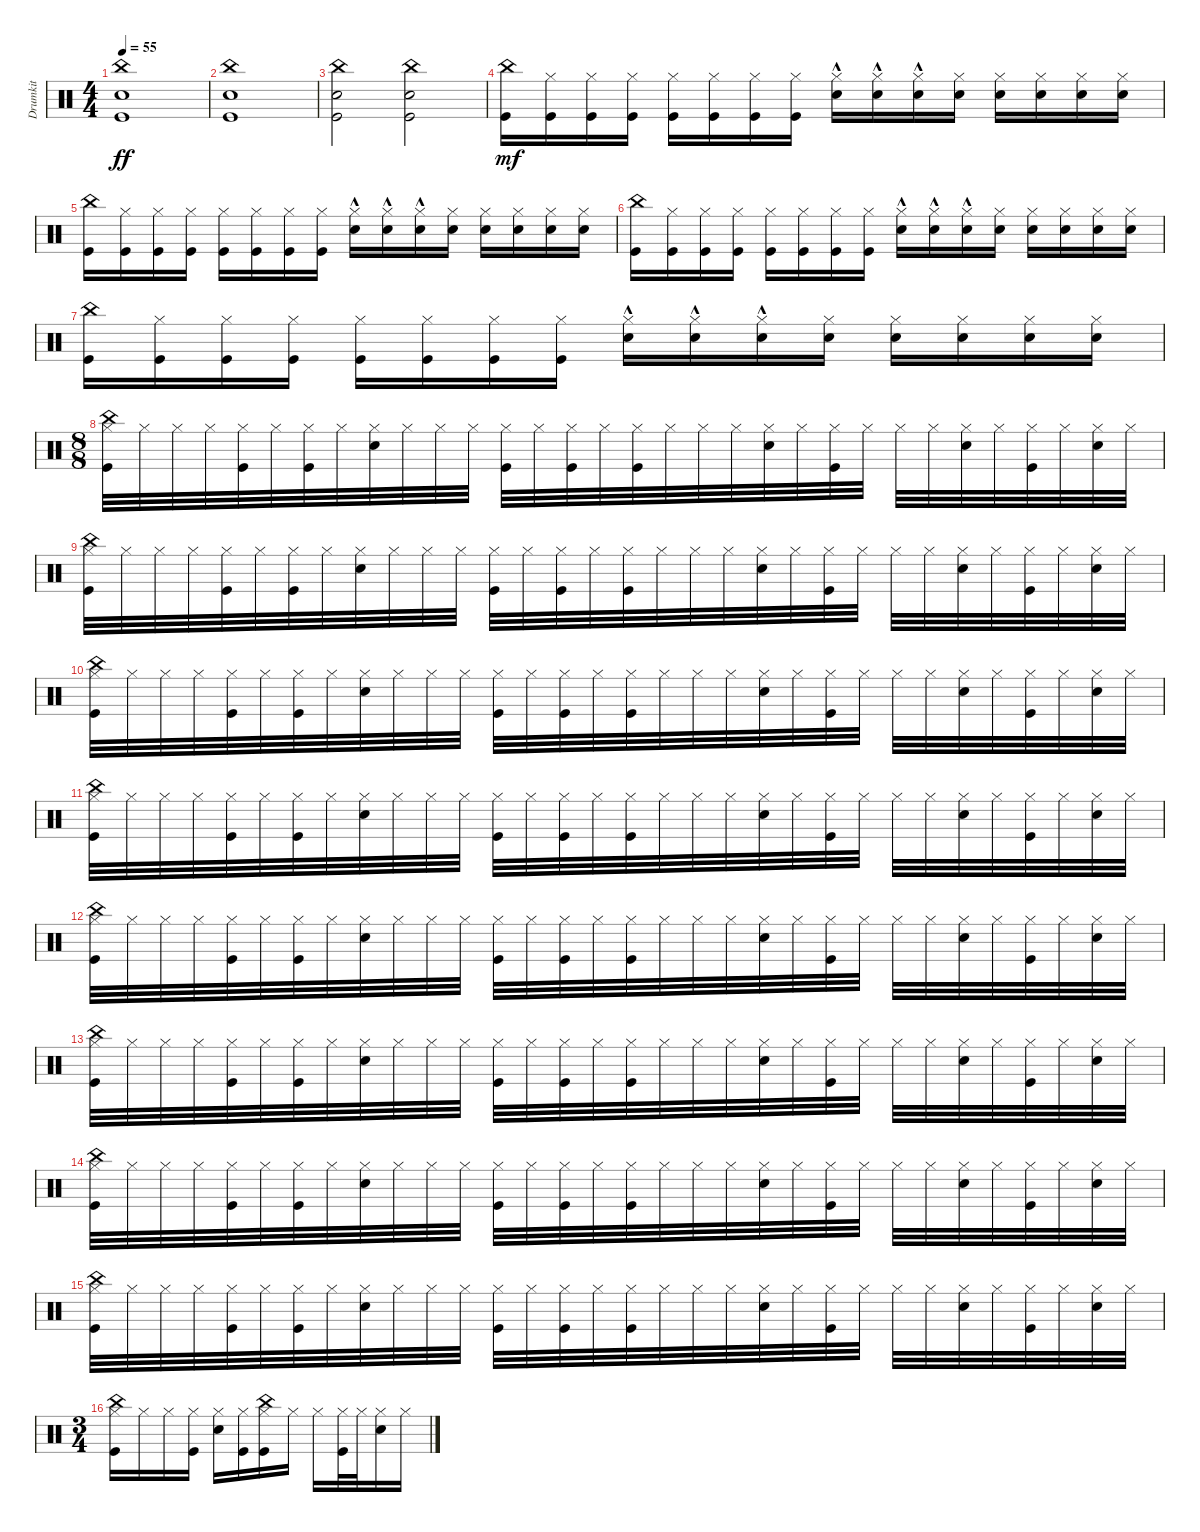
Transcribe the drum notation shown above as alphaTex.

\track ("Drumkit" "Drumkit") {instrument percussion}
\staff {score}
\articulation defaults
\ts (4 4)
\tempo 55
\clef neutral
\ks c
("China (hit)" "Kick (hit)" "Snare (hit) 2").1{dy ff} |
("China (hit)" "Kick (hit)" "Snare (hit) 2").1 |
("China (hit)" "Kick (hit)" "Snare (hit) 2").2 ("China (hit)" "Kick (hit)" "Snare (hit) 2").2 |
("Kick (hit)" "China (hit)").16{dy mf} ("Kick (hit)" "Hi-Hat (closed)").16 ("Kick (hit)" "Hi-Hat (closed)").16 ("Kick (hit)" "Hi-Hat (closed)").16 ("Kick (hit)" "Hi-Hat (closed)").16 ("Kick (hit)" "Hi-Hat (closed)").16 ("Kick (hit)" "Hi-Hat (closed)").16 ("Kick (hit)" "Hi-Hat (closed)").16 ("Snare (hit) 2"{hac} "Hi-Hat (closed)"{hac}).16 ("Snare (hit) 2"{hac} "Hi-Hat (closed)"{hac}).16 ("Snare (hit) 2"{hac} "Hi-Hat (closed)"{hac}).16 ("Snare (hit) 2" "Hi-Hat (closed)").16 ("Snare (hit) 2" "Hi-Hat (closed)").16 ("Snare (hit) 2" "Hi-Hat (closed)").16 ("Snare (hit) 2" "Hi-Hat (closed)").16 ("Snare (hit) 2" "Hi-Hat (closed)").16 |
("Kick (hit)" "China (hit)").16 ("Kick (hit)" "Hi-Hat (closed)").16 ("Kick (hit)" "Hi-Hat (closed)").16 ("Kick (hit)" "Hi-Hat (closed)").16 ("Kick (hit)" "Hi-Hat (closed)").16 ("Kick (hit)" "Hi-Hat (closed)").16 ("Kick (hit)" "Hi-Hat (closed)").16 ("Kick (hit)" "Hi-Hat (closed)").16 ("Snare (hit) 2"{hac} "Hi-Hat (closed)"{hac}).16 ("Snare (hit) 2"{hac} "Hi-Hat (closed)"{hac}).16 ("Snare (hit) 2"{hac} "Hi-Hat (closed)"{hac}).16 ("Snare (hit) 2" "Hi-Hat (closed)").16 ("Snare (hit) 2" "Hi-Hat (closed)").16 ("Snare (hit) 2" "Hi-Hat (closed)").16 ("Snare (hit) 2" "Hi-Hat (closed)").16 ("Snare (hit) 2" "Hi-Hat (closed)").16 |
("Kick (hit)" "China (hit)").16 ("Kick (hit)" "Hi-Hat (closed)").16 ("Kick (hit)" "Hi-Hat (closed)").16 ("Kick (hit)" "Hi-Hat (closed)").16 ("Kick (hit)" "Hi-Hat (closed)").16 ("Kick (hit)" "Hi-Hat (closed)").16 ("Kick (hit)" "Hi-Hat (closed)").16 ("Kick (hit)" "Hi-Hat (closed)").16 ("Snare (hit) 2"{hac} "Hi-Hat (closed)"{hac}).16 ("Snare (hit) 2"{hac} "Hi-Hat (closed)"{hac}).16 ("Snare (hit) 2"{hac} "Hi-Hat (closed)"{hac}).16 ("Snare (hit) 2" "Hi-Hat (closed)").16 ("Snare (hit) 2" "Hi-Hat (closed)").16 ("Snare (hit) 2" "Hi-Hat (closed)").16 ("Snare (hit) 2" "Hi-Hat (closed)").16 ("Snare (hit) 2" "Hi-Hat (closed)").16 |
("Kick (hit)" "China (hit)").16 ("Kick (hit)" "Hi-Hat (closed)").16 ("Kick (hit)" "Hi-Hat (closed)").16 ("Kick (hit)" "Hi-Hat (closed)").16 ("Kick (hit)" "Hi-Hat (closed)").16 ("Kick (hit)" "Hi-Hat (closed)").16 ("Kick (hit)" "Hi-Hat (closed)").16 ("Kick (hit)" "Hi-Hat (closed)").16 ("Snare (hit) 2"{hac} "Hi-Hat (closed)"{hac}).16 ("Snare (hit) 2"{hac} "Hi-Hat (closed)"{hac}).16 ("Snare (hit) 2"{hac} "Hi-Hat (closed)"{hac}).16 ("Snare (hit) 2" "Hi-Hat (closed)").16 ("Snare (hit) 2" "Hi-Hat (closed)").16 ("Snare (hit) 2" "Hi-Hat (closed)").16 ("Snare (hit) 2" "Hi-Hat (closed)").16 ("Snare (hit) 2" "Hi-Hat (closed)").16 |
\ts (8 8)
("Hi-Hat (closed)" "Kick (hit)" "China (hit)").32 "Hi-Hat (closed)".32 "Hi-Hat (closed)".32 "Hi-Hat (closed)".32 ("Hi-Hat (closed)" "Kick (hit)").32 "Hi-Hat (closed)".32 ("Hi-Hat (closed)" "Kick (hit)").32 "Hi-Hat (closed)".32 ("Hi-Hat (closed)" "Snare (hit) 2").32 "Hi-Hat (closed)".32 "Hi-Hat (closed)".32 "Hi-Hat (closed)".32 ("Hi-Hat (closed)" "Kick (hit)").32 "Hi-Hat (closed)".32 ("Hi-Hat (closed)" "Kick (hit)").32 "Hi-Hat (closed)".32 ("Hi-Hat (closed)" "Kick (hit)").32 "Hi-Hat (closed)".32 "Hi-Hat (closed)".32 "Hi-Hat (closed)".32 ("Hi-Hat (closed)" "Snare (hit) 2").32 "Hi-Hat (closed)".32 ("Hi-Hat (closed)" "Kick (hit)").32 "Hi-Hat (closed)".32 "Hi-Hat (closed)".32 "Hi-Hat (closed)".32 ("Hi-Hat (closed)" "Snare (hit) 2").32 "Hi-Hat (closed)".32 ("Hi-Hat (closed)" "Kick (hit)").32 "Hi-Hat (closed)".32 ("Hi-Hat (closed)" "Snare (hit) 2").32 "Hi-Hat (closed)".32 |
("Hi-Hat (closed)" "Kick (hit)" "China (hit)").32 "Hi-Hat (closed)".32 "Hi-Hat (closed)".32 "Hi-Hat (closed)".32 ("Hi-Hat (closed)" "Kick (hit)").32 "Hi-Hat (closed)".32 ("Hi-Hat (closed)" "Kick (hit)").32 "Hi-Hat (closed)".32 ("Hi-Hat (closed)" "Snare (hit) 2").32 "Hi-Hat (closed)".32 "Hi-Hat (closed)".32 "Hi-Hat (closed)".32 ("Hi-Hat (closed)" "Kick (hit)").32 "Hi-Hat (closed)".32 ("Hi-Hat (closed)" "Kick (hit)").32 "Hi-Hat (closed)".32 ("Hi-Hat (closed)" "Kick (hit)").32 "Hi-Hat (closed)".32 "Hi-Hat (closed)".32 "Hi-Hat (closed)".32 ("Hi-Hat (closed)" "Snare (hit) 2").32 "Hi-Hat (closed)".32 ("Hi-Hat (closed)" "Kick (hit)").32 "Hi-Hat (closed)".32 "Hi-Hat (closed)".32 "Hi-Hat (closed)".32 ("Hi-Hat (closed)" "Snare (hit) 2").32 "Hi-Hat (closed)".32 ("Hi-Hat (closed)" "Kick (hit)").32 "Hi-Hat (closed)".32 ("Hi-Hat (closed)" "Snare (hit) 2").32 "Hi-Hat (closed)".32 |
("Hi-Hat (closed)" "Kick (hit)" "China (hit)").32 "Hi-Hat (closed)".32 "Hi-Hat (closed)".32 "Hi-Hat (closed)".32 ("Hi-Hat (closed)" "Kick (hit)").32 "Hi-Hat (closed)".32 ("Hi-Hat (closed)" "Kick (hit)").32 "Hi-Hat (closed)".32 ("Hi-Hat (closed)" "Snare (hit) 2").32 "Hi-Hat (closed)".32 "Hi-Hat (closed)".32 "Hi-Hat (closed)".32 ("Hi-Hat (closed)" "Kick (hit)").32 "Hi-Hat (closed)".32 ("Hi-Hat (closed)" "Kick (hit)").32 "Hi-Hat (closed)".32 ("Hi-Hat (closed)" "Kick (hit)").32 "Hi-Hat (closed)".32 "Hi-Hat (closed)".32 "Hi-Hat (closed)".32 ("Hi-Hat (closed)" "Snare (hit) 2").32 "Hi-Hat (closed)".32 ("Hi-Hat (closed)" "Kick (hit)").32 "Hi-Hat (closed)".32 "Hi-Hat (closed)".32 "Hi-Hat (closed)".32 ("Hi-Hat (closed)" "Snare (hit) 2").32 "Hi-Hat (closed)".32 ("Hi-Hat (closed)" "Kick (hit)").32 "Hi-Hat (closed)".32 ("Hi-Hat (closed)" "Snare (hit) 2").32 "Hi-Hat (closed)".32 |
("Hi-Hat (closed)" "Kick (hit)" "China (hit)").32 "Hi-Hat (closed)".32 "Hi-Hat (closed)".32 "Hi-Hat (closed)".32 ("Hi-Hat (closed)" "Kick (hit)").32 "Hi-Hat (closed)".32 ("Hi-Hat (closed)" "Kick (hit)").32 "Hi-Hat (closed)".32 ("Hi-Hat (closed)" "Snare (hit) 2").32 "Hi-Hat (closed)".32 "Hi-Hat (closed)".32 "Hi-Hat (closed)".32 ("Hi-Hat (closed)" "Kick (hit)").32 "Hi-Hat (closed)".32 ("Hi-Hat (closed)" "Kick (hit)").32 "Hi-Hat (closed)".32 ("Hi-Hat (closed)" "Kick (hit)").32 "Hi-Hat (closed)".32 "Hi-Hat (closed)".32 "Hi-Hat (closed)".32 ("Hi-Hat (closed)" "Snare (hit) 2").32 "Hi-Hat (closed)".32 ("Hi-Hat (closed)" "Kick (hit)").32 "Hi-Hat (closed)".32 "Hi-Hat (closed)".32 "Hi-Hat (closed)".32 ("Hi-Hat (closed)" "Snare (hit) 2").32 "Hi-Hat (closed)".32 ("Hi-Hat (closed)" "Kick (hit)").32 "Hi-Hat (closed)".32 ("Hi-Hat (closed)" "Snare (hit) 2").32 "Hi-Hat (closed)".32 |
("Hi-Hat (closed)" "Kick (hit)" "China (hit)").32 "Hi-Hat (closed)".32 "Hi-Hat (closed)".32 "Hi-Hat (closed)".32 ("Hi-Hat (closed)" "Kick (hit)").32 "Hi-Hat (closed)".32 ("Hi-Hat (closed)" "Kick (hit)").32 "Hi-Hat (closed)".32 ("Hi-Hat (closed)" "Snare (hit) 2").32 "Hi-Hat (closed)".32 "Hi-Hat (closed)".32 "Hi-Hat (closed)".32 ("Hi-Hat (closed)" "Kick (hit)").32 "Hi-Hat (closed)".32 ("Hi-Hat (closed)" "Kick (hit)").32 "Hi-Hat (closed)".32 ("Hi-Hat (closed)" "Kick (hit)").32 "Hi-Hat (closed)".32 "Hi-Hat (closed)".32 "Hi-Hat (closed)".32 ("Hi-Hat (closed)" "Snare (hit) 2").32 "Hi-Hat (closed)".32 ("Hi-Hat (closed)" "Kick (hit)").32 "Hi-Hat (closed)".32 "Hi-Hat (closed)".32 "Hi-Hat (closed)".32 ("Hi-Hat (closed)" "Snare (hit) 2").32 "Hi-Hat (closed)".32 ("Hi-Hat (closed)" "Kick (hit)").32 "Hi-Hat (closed)".32 ("Hi-Hat (closed)" "Snare (hit) 2").32 "Hi-Hat (closed)".32 |
("Hi-Hat (closed)" "Kick (hit)" "China (hit)").32 "Hi-Hat (closed)".32 "Hi-Hat (closed)".32 "Hi-Hat (closed)".32 ("Hi-Hat (closed)" "Kick (hit)").32 "Hi-Hat (closed)".32 ("Hi-Hat (closed)" "Kick (hit)").32 "Hi-Hat (closed)".32 ("Hi-Hat (closed)" "Snare (hit) 2").32 "Hi-Hat (closed)".32 "Hi-Hat (closed)".32 "Hi-Hat (closed)".32 ("Hi-Hat (closed)" "Kick (hit)").32 "Hi-Hat (closed)".32 ("Hi-Hat (closed)" "Kick (hit)").32 "Hi-Hat (closed)".32 ("Hi-Hat (closed)" "Kick (hit)").32 "Hi-Hat (closed)".32 "Hi-Hat (closed)".32 "Hi-Hat (closed)".32 ("Hi-Hat (closed)" "Snare (hit) 2").32 "Hi-Hat (closed)".32 ("Hi-Hat (closed)" "Kick (hit)").32 "Hi-Hat (closed)".32 "Hi-Hat (closed)".32 "Hi-Hat (closed)".32 ("Hi-Hat (closed)" "Snare (hit) 2").32 "Hi-Hat (closed)".32 ("Hi-Hat (closed)" "Kick (hit)").32 "Hi-Hat (closed)".32 ("Hi-Hat (closed)" "Snare (hit) 2").32 "Hi-Hat (closed)".32 |
("Hi-Hat (closed)" "Kick (hit)" "China (hit)").32 "Hi-Hat (closed)".32 "Hi-Hat (closed)".32 "Hi-Hat (closed)".32 ("Hi-Hat (closed)" "Kick (hit)").32 "Hi-Hat (closed)".32 ("Hi-Hat (closed)" "Kick (hit)").32 "Hi-Hat (closed)".32 ("Hi-Hat (closed)" "Snare (hit) 2").32 "Hi-Hat (closed)".32 "Hi-Hat (closed)".32 "Hi-Hat (closed)".32 ("Hi-Hat (closed)" "Kick (hit)").32 "Hi-Hat (closed)".32 ("Hi-Hat (closed)" "Kick (hit)").32 "Hi-Hat (closed)".32 ("Hi-Hat (closed)" "Kick (hit)").32 "Hi-Hat (closed)".32 "Hi-Hat (closed)".32 "Hi-Hat (closed)".32 ("Hi-Hat (closed)" "Snare (hit) 2").32 "Hi-Hat (closed)".32 ("Hi-Hat (closed)" "Kick (hit)").32 "Hi-Hat (closed)".32 "Hi-Hat (closed)".32 "Hi-Hat (closed)".32 ("Hi-Hat (closed)" "Snare (hit) 2").32 "Hi-Hat (closed)".32 ("Hi-Hat (closed)" "Kick (hit)").32 "Hi-Hat (closed)".32 ("Hi-Hat (closed)" "Snare (hit) 2").32 "Hi-Hat (closed)".32 |
("Hi-Hat (closed)" "Kick (hit)" "China (hit)").32 "Hi-Hat (closed)".32 "Hi-Hat (closed)".32 "Hi-Hat (closed)".32 ("Hi-Hat (closed)" "Kick (hit)").32 "Hi-Hat (closed)".32 ("Hi-Hat (closed)" "Kick (hit)").32 "Hi-Hat (closed)".32 ("Hi-Hat (closed)" "Snare (hit) 2").32 "Hi-Hat (closed)".32 "Hi-Hat (closed)".32 "Hi-Hat (closed)".32 ("Hi-Hat (closed)" "Kick (hit)").32 "Hi-Hat (closed)".32 ("Hi-Hat (closed)" "Kick (hit)").32 "Hi-Hat (closed)".32 ("Hi-Hat (closed)" "Kick (hit)").32 "Hi-Hat (closed)".32 "Hi-Hat (closed)".32 "Hi-Hat (closed)".32 ("Hi-Hat (closed)" "Snare (hit) 2").32 "Hi-Hat (closed)".32 ("Hi-Hat (closed)" "Kick (hit)").32 "Hi-Hat (closed)".32 "Hi-Hat (closed)".32 "Hi-Hat (closed)".32 ("Hi-Hat (closed)" "Snare (hit) 2").32 "Hi-Hat (closed)".32 ("Hi-Hat (closed)" "Kick (hit)").32 "Hi-Hat (closed)".32 ("Hi-Hat (closed)" "Snare (hit) 2").32 "Hi-Hat (closed)".32 |
\ts (3 4)
("Hi-Hat (closed)" "Kick (hit)" "China (hit)").16 "Hi-Hat (closed)".16 "Hi-Hat (closed)".16 ("Hi-Hat (closed)" "Kick (hit)").16 ("Hi-Hat (closed)" "Snare (hit) 2").16 ("Hi-Hat (closed)" "Kick (hit)").16 ("Hi-Hat (closed)" "Kick (hit)" "China (hit)").16 "Hi-Hat (closed)".16 "Hi-Hat (closed)".16 ("Hi-Hat (closed)" "Kick (hit)").32 "Hi-Hat (closed)".32 ("Hi-Hat (closed)" "Snare (hit) 2").16 "Hi-Hat (closed)".16
